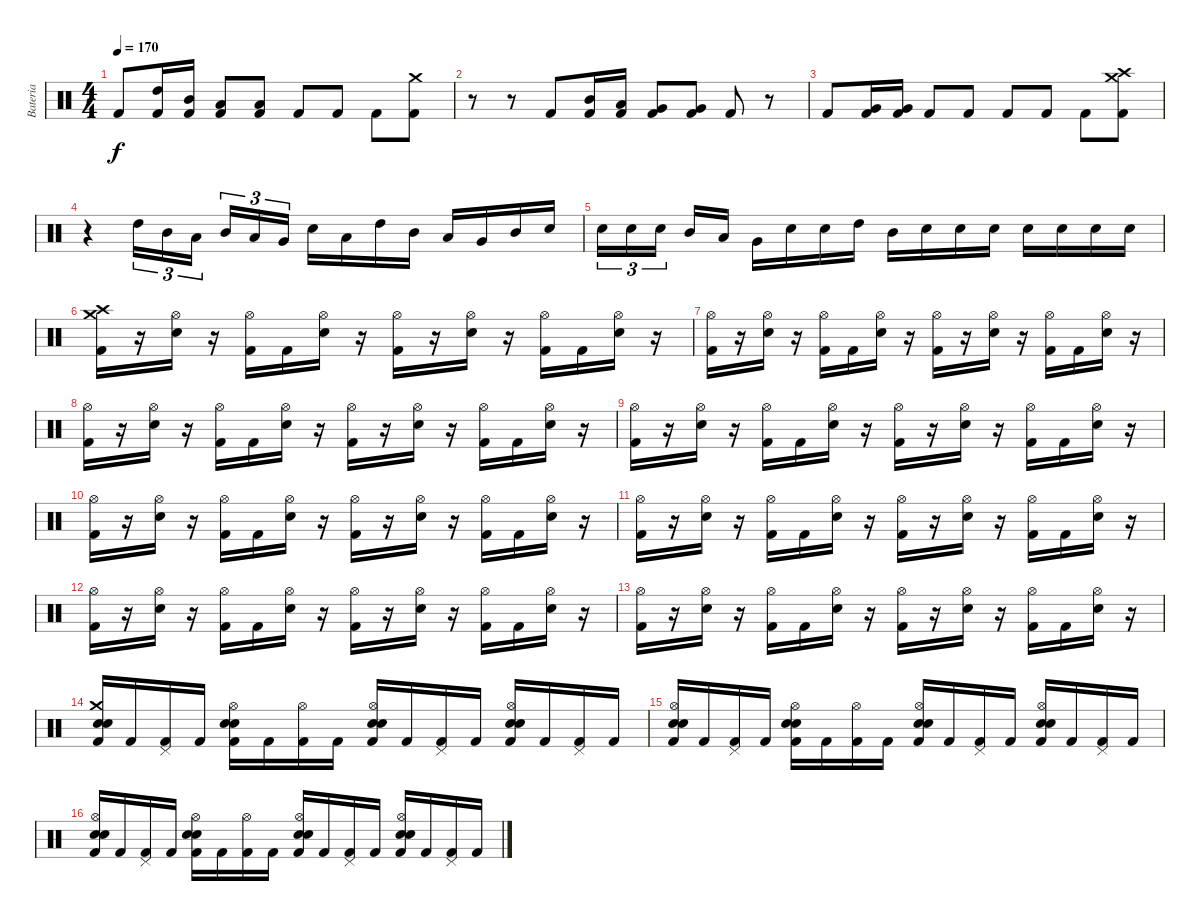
\track ("Bateria" "Bateria") {instrument percussion}
\staff {score}
\articulation defaults
\ts (4 4)
\tempo 170
\clef neutral
\ks c "Kick (hit) 2".8{dy f}
("High Tom (hit)" "Kick (hit) 2").16 ("Mid Tom (hit)" "Kick (hit) 2").16 ("Low Tom (hit)" "Kick (hit) 2").8 ("Low Tom (hit)" "Kick (hit) 2").8 "Kick (hit) 2".8 "Kick (hit) 2".8 "Kick (hit) 2".8 ("Crash medium (hit)" "Kick (hit) 2").8 |
r.8 r.8 "Kick (hit) 2".8 ("Mid Tom (hit)" "Kick (hit) 2").16 ("Low Tom (hit)" "Kick (hit) 2").16 ("Very Low Tom (hit)" "Kick (hit) 2").8 ("Very Low Tom (hit)" "Kick (hit) 2").8 "Kick (hit) 2".8 r.8 |
"Kick (hit) 2".8 ("Very Low Tom (hit)" "Kick (hit) 2").16 ("Very Low Tom (hit)" "Kick (hit) 2").16 "Kick (hit) 2".8 "Kick (hit) 2".8 "Kick (hit) 2".8 "Kick (hit) 2".8 "Kick (hit) 2".8 ("Crash medium (hit)" "Crash high (hit)" "Kick (hit) 2").8 |
r.4 "High Tom (hit)".16{tu (3 2)} "Mid Tom (hit)".16{tu (3 2)} "Low Tom (hit)".16{tu (3 2)} "Mid Tom (hit)".16{tu (3 2)} "Low Tom (hit)".16{tu (3 2)} "Very Low Tom (hit)".16{tu (3 2)} "Electric Snare (hit)".16 "Low Tom (hit)".16 "High Tom (hit)".16 "Mid Tom (hit)".16 "Low Tom (hit)".16 "Very Low Tom (hit)".16 "Mid Tom (hit)".16 "Electric Snare (hit)".16 |
"Electric Snare (hit)".16{tu (3 2)} "Electric Snare (hit)".16{tu (3 2)} "Electric Snare (hit)".16{tu (3 2)} "Mid Tom (hit)".16 "Low Tom (hit)".16 "Very Low Tom (hit)".16 "Electric Snare (hit)".16 "Electric Snare (hit)".16 "High Tom (hit)".16 "Mid Tom (hit)".16 "Electric Snare (hit)".16 "Electric Snare (hit)".16 "Electric Snare (hit)".16 "Electric Snare (hit)".16 "Electric Snare (hit)".16 "Electric Snare (hit)".16 "Electric Snare (hit)".16 |
("Crash medium (hit)" "Crash high (hit)" "Kick (hit) 2").16 r.16 ("Hi-Hat (open)" "Electric Snare (hit)").16 r.16 ("Hi-Hat (open)" "Kick (hit) 2").16 "Kick (hit) 2".16 ("Hi-Hat (open)" "Electric Snare (hit)").16 r.16 ("Hi-Hat (open)" "Kick (hit) 2").16 r.16 ("Hi-Hat (open)" "Electric Snare (hit)").16 r.16 ("Hi-Hat (open)" "Kick (hit) 2").16 "Kick (hit) 2".16 ("Hi-Hat (open)" "Electric Snare (hit)").16 r.16 |
("Hi-Hat (open)" "Kick (hit) 2").16 r.16 ("Hi-Hat (open)" "Electric Snare (hit)").16 r.16 ("Hi-Hat (open)" "Kick (hit) 2").16 "Kick (hit) 2".16 ("Hi-Hat (open)" "Electric Snare (hit)").16 r.16 ("Hi-Hat (open)" "Kick (hit) 2").16 r.16 ("Hi-Hat (open)" "Electric Snare (hit)").16 r.16 ("Hi-Hat (open)" "Kick (hit) 2").16 "Kick (hit) 2".16 ("Hi-Hat (open)" "Electric Snare (hit)").16 r.16 |
("Hi-Hat (open)" "Kick (hit) 2").16 r.16 ("Hi-Hat (open)" "Electric Snare (hit)").16 r.16 ("Hi-Hat (open)" "Kick (hit) 2").16 "Kick (hit) 2".16 ("Hi-Hat (open)" "Electric Snare (hit)").16 r.16 ("Hi-Hat (open)" "Kick (hit) 2").16 r.16 ("Hi-Hat (open)" "Electric Snare (hit)").16 r.16 ("Hi-Hat (open)" "Kick (hit) 2").16 "Kick (hit) 2".16 ("Hi-Hat (open)" "Electric Snare (hit)").16 r.16 |
("Hi-Hat (open)" "Kick (hit) 2").16 r.16 ("Hi-Hat (open)" "Electric Snare (hit)").16 r.16 ("Hi-Hat (open)" "Kick (hit) 2").16 "Kick (hit) 2".16 ("Hi-Hat (open)" "Electric Snare (hit)").16 r.16 ("Hi-Hat (open)" "Kick (hit) 2").16 r.16 ("Hi-Hat (open)" "Electric Snare (hit)").16 r.16 ("Hi-Hat (open)" "Kick (hit) 2").16 "Kick (hit) 2".16 ("Hi-Hat (open)" "Electric Snare (hit)").16 r.16 |
("Hi-Hat (open)" "Kick (hit) 2").16 r.16 ("Hi-Hat (open)" "Electric Snare (hit)").16 r.16 ("Hi-Hat (open)" "Kick (hit) 2").16 "Kick (hit) 2".16 ("Hi-Hat (open)" "Electric Snare (hit)").16 r.16 ("Hi-Hat (open)" "Kick (hit) 2").16 r.16 ("Hi-Hat (open)" "Electric Snare (hit)").16 r.16 ("Hi-Hat (open)" "Kick (hit) 2").16 "Kick (hit) 2".16 ("Hi-Hat (open)" "Electric Snare (hit)").16 r.16 |
("Hi-Hat (open)" "Kick (hit) 2").16 r.16 ("Hi-Hat (open)" "Electric Snare (hit)").16 r.16 ("Hi-Hat (open)" "Kick (hit) 2").16 "Kick (hit) 2".16 ("Hi-Hat (open)" "Electric Snare (hit)").16 r.16 ("Hi-Hat (open)" "Kick (hit) 2").16 r.16 ("Hi-Hat (open)" "Electric Snare (hit)").16 r.16 ("Hi-Hat (open)" "Kick (hit) 2").16 "Kick (hit) 2".16 ("Hi-Hat (open)" "Electric Snare (hit)").16 r.16 |
("Hi-Hat (open)" "Kick (hit) 2").16 r.16 ("Hi-Hat (open)" "Electric Snare (hit)").16 r.16 ("Hi-Hat (open)" "Kick (hit) 2").16 "Kick (hit) 2".16 ("Hi-Hat (open)" "Electric Snare (hit)").16 r.16 ("Hi-Hat (open)" "Kick (hit) 2").16 r.16 ("Hi-Hat (open)" "Electric Snare (hit)").16 r.16 ("Hi-Hat (open)" "Kick (hit) 2").16 "Kick (hit) 2".16 ("Hi-Hat (open)" "Electric Snare (hit)").16 r.16 |
("Hi-Hat (open)" "Kick (hit) 2").16 r.16 ("Hi-Hat (open)" "Electric Snare (hit)").16 r.16 ("Hi-Hat (open)" "Kick (hit) 2").16 "Kick (hit) 2".16 ("Hi-Hat (open)" "Electric Snare (hit)").16 r.16 ("Hi-Hat (open)" "Kick (hit) 2").16 r.16 ("Hi-Hat (open)" "Electric Snare (hit)").16 r.16 ("Hi-Hat (open)" "Kick (hit) 2").16 "Kick (hit) 2".16 ("Hi-Hat (open)" "Electric Snare (hit)").16 r.16 |
("Crash medium (hit)" "Electric Snare (hit)" "Snare (hit) 2" "Kick (hit) 2").16 "Kick (hit) 2".16 ("Pedal Hi-Hat (hit)" "Kick (hit) 2").16 "Kick (hit) 2".16 ("Hi-Hat (open)" "Electric Snare (hit)" "Snare (hit) 2" "Kick (hit) 2").16 "Kick (hit) 2".16 ("Hi-Hat (open)" "Kick (hit) 2").16 "Kick (hit) 2".16 ("Hi-Hat (open)" "Electric Snare (hit)" "Snare (hit) 2" "Kick (hit) 2").16 "Kick (hit) 2".16 ("Pedal Hi-Hat (hit)" "Kick (hit) 2").16 "Kick (hit) 2".16 ("Hi-Hat (open)" "Electric Snare (hit)" "Snare (hit) 2" "Kick (hit) 2").16 "Kick (hit) 2".16 ("Pedal Hi-Hat (hit)" "Kick (hit) 2").16 "Kick (hit) 2".16 |
("Hi-Hat (open)" "Electric Snare (hit)" "Snare (hit) 2" "Kick (hit) 2").16 "Kick (hit) 2".16 ("Pedal Hi-Hat (hit)" "Kick (hit) 2").16 "Kick (hit) 2".16 ("Hi-Hat (open)" "Electric Snare (hit)" "Snare (hit) 2" "Kick (hit) 2").16 "Kick (hit) 2".16 ("Hi-Hat (open)" "Kick (hit) 2").16 "Kick (hit) 2".16 ("Hi-Hat (open)" "Electric Snare (hit)" "Snare (hit) 2" "Kick (hit) 2").16 "Kick (hit) 2".16 ("Pedal Hi-Hat (hit)" "Kick (hit) 2").16 "Kick (hit) 2".16 ("Hi-Hat (open)" "Electric Snare (hit)" "Snare (hit) 2" "Kick (hit) 2").16 "Kick (hit) 2".16 ("Pedal Hi-Hat (hit)" "Kick (hit) 2").16 "Kick (hit) 2".16 |
("Hi-Hat (open)" "Electric Snare (hit)" "Snare (hit) 2" "Kick (hit) 2").16 "Kick (hit) 2".16 ("Pedal Hi-Hat (hit)" "Kick (hit) 2").16 "Kick (hit) 2".16 ("Hi-Hat (open)" "Electric Snare (hit)" "Snare (hit) 2" "Kick (hit) 2").16 "Kick (hit) 2".16 ("Hi-Hat (open)" "Kick (hit) 2").16 "Kick (hit) 2".16 ("Hi-Hat (open)" "Electric Snare (hit)" "Snare (hit) 2" "Kick (hit) 2").16 "Kick (hit) 2".16 ("Pedal Hi-Hat (hit)" "Kick (hit) 2").16 "Kick (hit) 2".16 ("Hi-Hat (open)" "Electric Snare (hit)" "Snare (hit) 2" "Kick (hit) 2").16 "Kick (hit) 2".16 ("Pedal Hi-Hat (hit)" "Kick (hit) 2").16 "Kick (hit) 2".16
